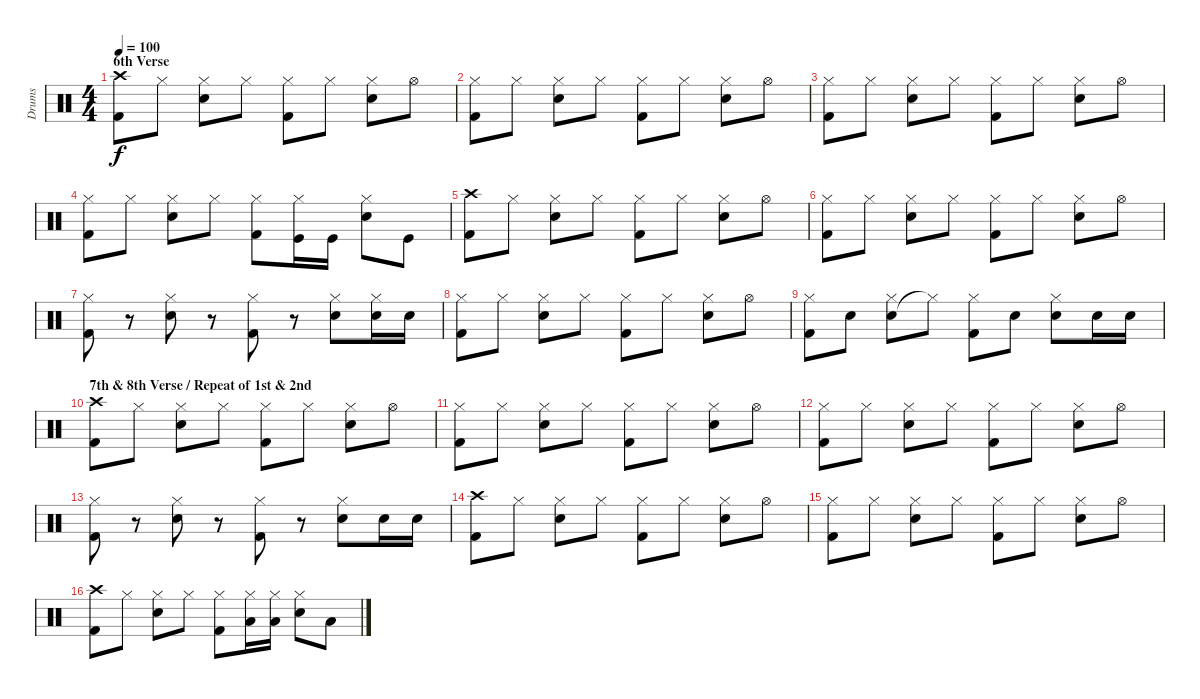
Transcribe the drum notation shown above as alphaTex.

\track ("Drums" "Drums") {instrument percussion}
\staff {score}
\articulation defaults
\ts (4 4)
\section ("" "6th Verse")
\tempo 100
\clef neutral
\ks c
("Kick (hit) 2" "Crash high (hit)").8{dy f} "Hi-Hat (closed)".8 ("Snare (hit) 2" "Hi-Hat (closed)").8 "Hi-Hat (closed)".8 ("Kick (hit) 2" "Hi-Hat (closed)").8 "Hi-Hat (closed)".8 ("Snare (hit) 2" "Hi-Hat (closed)").8 "Hi-Hat (open)".8 |
("Kick (hit) 2" "Hi-Hat (closed)").8 "Hi-Hat (closed)".8 ("Snare (hit) 2" "Hi-Hat (closed)").8 "Hi-Hat (closed)".8 ("Kick (hit) 2" "Hi-Hat (closed)").8 "Hi-Hat (closed)".8 ("Snare (hit) 2" "Hi-Hat (closed)").8 "Hi-Hat (open)".8 |
("Kick (hit) 2" "Hi-Hat (closed)").8 "Hi-Hat (closed)".8 ("Snare (hit) 2" "Hi-Hat (closed)").8 "Hi-Hat (closed)".8 ("Kick (hit) 2" "Hi-Hat (closed)").8 "Hi-Hat (closed)".8 ("Snare (hit) 2" "Hi-Hat (closed)").8 "Hi-Hat (open)".8 |
("Kick (hit) 2" "Hi-Hat (closed)").8 "Hi-Hat (closed)".8 ("Snare (hit) 2" "Hi-Hat (closed)").8 "Hi-Hat (closed)".8 ("Kick (hit) 2" "Hi-Hat (closed)").8 ("Kick (hit)" "Hi-Hat (closed)").16 "Kick (hit)".16 ("Snare (hit) 2" "Hi-Hat (closed)").8 "Kick (hit)".8 |
("Kick (hit) 2" "Crash high (hit)").8 "Hi-Hat (closed)".8 ("Snare (hit) 2" "Hi-Hat (closed)").8 "Hi-Hat (closed)".8 ("Kick (hit) 2" "Hi-Hat (closed)").8 "Hi-Hat (closed)".8 ("Snare (hit) 2" "Hi-Hat (closed)").8 "Hi-Hat (open)".8 |
("Kick (hit) 2" "Hi-Hat (closed)").8 "Hi-Hat (closed)".8 ("Snare (hit) 2" "Hi-Hat (closed)").8 "Hi-Hat (closed)".8 ("Kick (hit) 2" "Hi-Hat (closed)").8 "Hi-Hat (closed)".8 ("Snare (hit) 2" "Hi-Hat (closed)").8 "Hi-Hat (open)".8 |
("Kick (hit) 2" "Hi-Hat (closed)").8 r.8 ("Snare (hit) 2" "Hi-Hat (closed)").8 r.8 ("Kick (hit) 2" "Hi-Hat (closed)").8 r.8 ("Snare (hit) 2" "Hi-Hat (closed)").8 ("Snare (hit) 2" "Hi-Hat (closed)").16 "Snare (hit) 2".16 |
("Kick (hit) 2" "Hi-Hat (closed)").8 "Hi-Hat (closed)".8 ("Snare (hit) 2" "Hi-Hat (closed)").8 "Hi-Hat (closed)".8 ("Kick (hit) 2" "Hi-Hat (closed)").8 "Hi-Hat (closed)".8 ("Snare (hit) 2" "Hi-Hat (closed)").8 "Hi-Hat (open)".8 |
("Kick (hit) 2" "Hi-Hat (closed)").8 "Snare (hit) 2".8 ("Snare (hit) 2" "Hi-Hat (closed)").8 "Hi-Hat (closed)"{t}.8 ("Kick (hit) 2" "Hi-Hat (closed)").8 "Snare (hit) 2".8 ("Snare (hit) 2" "Hi-Hat (closed)").8 "Snare (hit) 2".16 "Snare (hit) 2".16 |
\section ("" "7th & 8th Verse / Repeat of 1st & 2nd")
("Kick (hit) 2" "Crash high (hit)").8 "Hi-Hat (closed)".8 ("Snare (hit) 2" "Hi-Hat (closed)").8 "Hi-Hat (closed)".8 ("Kick (hit) 2" "Hi-Hat (closed)").8 "Hi-Hat (closed)".8 ("Snare (hit) 2" "Hi-Hat (closed)").8 "Hi-Hat (open)".8 |
("Kick (hit) 2" "Hi-Hat (closed)").8 "Hi-Hat (closed)".8 ("Snare (hit) 2" "Hi-Hat (closed)").8 "Hi-Hat (closed)".8 ("Kick (hit) 2" "Hi-Hat (closed)").8 "Hi-Hat (closed)".8 ("Snare (hit) 2" "Hi-Hat (closed)").8 "Hi-Hat (open)".8 |
("Kick (hit) 2" "Hi-Hat (closed)").8 "Hi-Hat (closed)".8 ("Snare (hit) 2" "Hi-Hat (closed)").8 "Hi-Hat (closed)".8 ("Kick (hit) 2" "Hi-Hat (closed)").8 "Hi-Hat (closed)".8 ("Snare (hit) 2" "Hi-Hat (closed)").8 "Hi-Hat (open)".8 |
("Kick (hit) 2" "Hi-Hat (closed)").8 r.8 ("Snare (hit) 2" "Hi-Hat (closed)").8 r.8 ("Kick (hit) 2" "Hi-Hat (closed)").8 r.8 ("Snare (hit) 2" "Hi-Hat (closed)").8 "Snare (hit) 2".16 "Snare (hit) 2".16 |
("Kick (hit) 2" "Crash high (hit)").8 "Hi-Hat (closed)".8 ("Snare (hit) 2" "Hi-Hat (closed)").8 "Hi-Hat (closed)".8 ("Kick (hit) 2" "Hi-Hat (closed)").8 "Hi-Hat (closed)".8 ("Snare (hit) 2" "Hi-Hat (closed)").8 "Hi-Hat (open)".8 |
("Kick (hit) 2" "Hi-Hat (closed)").8 "Hi-Hat (closed)".8 ("Snare (hit) 2" "Hi-Hat (closed)").8 "Hi-Hat (closed)".8 ("Kick (hit) 2" "Hi-Hat (closed)").8 "Hi-Hat (closed)".8 ("Snare (hit) 2" "Hi-Hat (closed)").8 "Hi-Hat (open)".8 |
("Kick (hit) 2" "Crash high (hit)").8 "Hi-Hat (closed)".8 ("Snare (hit) 2" "Hi-Hat (closed)").8 "Hi-Hat (closed)".8 ("Kick (hit) 2" "Hi-Hat (closed)").8 ("Low Tom (hit)" "Hi-Hat (closed)").16 ("Low Tom (hit)" "Hi-Hat (closed)").16 ("Snare (hit) 2" "Hi-Hat (closed)").8 "Low Tom (hit)".8
